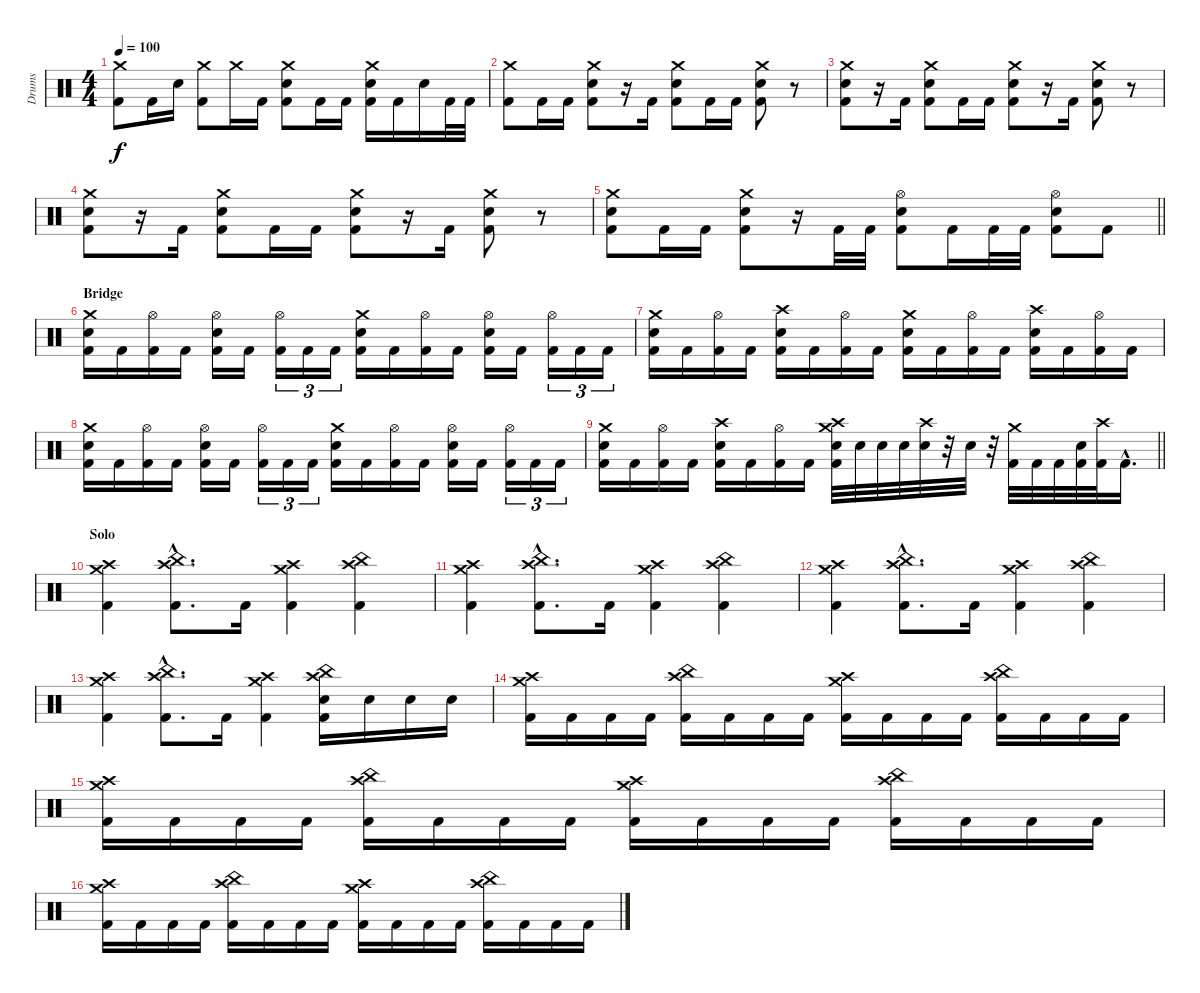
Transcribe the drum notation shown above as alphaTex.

\track ("Drums" "Drums") {instrument percussion}
\staff {score}
\articulation defaults
\ts (4 4)
\tempo 100
\clef neutral
\ks c
("Crash medium (hit)" "Kick (hit) 2").8{dy f} "Kick (hit) 2".16 "Electric Snare (hit)".16 ("Crash medium (hit)" "Kick (hit) 2").8 "Crash medium (hit)".16 "Kick (hit) 2".16 ("Crash medium (hit)" "Electric Snare (hit)" "Kick (hit) 2").8 "Kick (hit) 2".16 "Kick (hit) 2".16 ("Crash medium (hit)" "Electric Snare (hit)" "Kick (hit) 2").16 "Kick (hit) 2".16 "Electric Snare (hit)".16 "Kick (hit) 2".32 "Kick (hit) 2".32 |
("Crash medium (hit)" "Kick (hit) 2").8 "Kick (hit) 2".16 "Kick (hit) 2".16 ("Crash medium (hit)" "Electric Snare (hit)" "Kick (hit) 2").8 r.16 "Kick (hit) 2".16 ("Crash medium (hit)" "Electric Snare (hit)" "Kick (hit) 2").8 "Kick (hit) 2".16 "Kick (hit) 2".16 ("Crash medium (hit)" "Electric Snare (hit)" "Kick (hit) 2").8 r.8 |
("Crash medium (hit)" "Electric Snare (hit)" "Kick (hit) 2").8 r.16 "Kick (hit) 2".16 ("Crash medium (hit)" "Electric Snare (hit)" "Kick (hit) 2").8 "Kick (hit) 2".16 "Kick (hit) 2".16 ("Crash medium (hit)" "Electric Snare (hit)" "Kick (hit) 2").8 r.16 "Kick (hit) 2".16 ("Crash medium (hit)" "Electric Snare (hit)" "Kick (hit) 2").8 r.8 |
("Crash medium (hit)" "Electric Snare (hit)" "Kick (hit) 2").8 r.16 "Kick (hit) 2".16 ("Crash medium (hit)" "Electric Snare (hit)" "Kick (hit) 2").8 "Kick (hit) 2".16 "Kick (hit) 2".16 ("Crash medium (hit)" "Electric Snare (hit)" "Kick (hit) 2").8 r.16 "Kick (hit) 2".16 ("Crash medium (hit)" "Electric Snare (hit)" "Kick (hit) 2").8 r.8 |
\barLineRight lightlight
("Crash medium (hit)" "Electric Snare (hit)" "Kick (hit) 2").8 "Kick (hit) 2".16 "Kick (hit) 2".16 ("Crash medium (hit)" "Electric Snare (hit)" "Kick (hit) 2").8 r.16 "Kick (hit) 2".32 "Kick (hit) 2".32 ("Hi-Hat (open)" "Electric Snare (hit)" "Kick (hit) 2").8 "Kick (hit) 2".16 "Kick (hit) 2".32 "Kick (hit) 2".32 ("Hi-Hat (open)" "Electric Snare (hit)" "Kick (hit) 2").8 "Kick (hit) 2".8 |
\section ("" "Bridge")
("Crash medium (hit)" "Electric Snare (hit)" "Kick (hit) 2").16 "Kick (hit) 2".16 ("Hi-Hat (open)" "Kick (hit) 2").16 "Kick (hit) 2".16 ("Hi-Hat (open)" "Electric Snare (hit)" "Kick (hit) 2").16 "Kick (hit) 2".16 ("Hi-Hat (open)" "Kick (hit) 2").16{tu (3 2)} "Kick (hit) 2".16{tu (3 2)} "Kick (hit) 2".16{tu (3 2)} ("Crash medium (hit)" "Electric Snare (hit)" "Kick (hit) 2").16 "Kick (hit) 2".16 ("Hi-Hat (open)" "Kick (hit) 2").16 "Kick (hit) 2".16 ("Hi-Hat (open)" "Electric Snare (hit)" "Kick (hit) 2").16 "Kick (hit) 2".16 ("Hi-Hat (open)" "Kick (hit) 2").16{tu (3 2)} "Kick (hit) 2".16{tu (3 2)} "Kick (hit) 2".16{tu (3 2)} |
("Crash medium (hit)" "Electric Snare (hit)" "Kick (hit) 2").16 "Kick (hit) 2".16 ("Hi-Hat (open)" "Kick (hit) 2").16 "Kick (hit) 2".16 ("Crash high (hit)" "Electric Snare (hit)" "Kick (hit) 2").16 "Kick (hit) 2".16 ("Hi-Hat (open)" "Kick (hit) 2").16 "Kick (hit) 2".16 ("Crash medium (hit)" "Electric Snare (hit)" "Kick (hit) 2").16 "Kick (hit) 2".16 ("Hi-Hat (open)" "Kick (hit) 2").16 "Kick (hit) 2".16 ("Crash high (hit)" "Electric Snare (hit)" "Kick (hit) 2").16 "Kick (hit) 2".16 ("Hi-Hat (open)" "Kick (hit) 2").16 "Kick (hit) 2".16 |
("Crash medium (hit)" "Electric Snare (hit)" "Kick (hit) 2").16 "Kick (hit) 2".16 ("Hi-Hat (open)" "Kick (hit) 2").16 "Kick (hit) 2".16 ("Hi-Hat (open)" "Electric Snare (hit)" "Kick (hit) 2").16 "Kick (hit) 2".16 ("Hi-Hat (open)" "Kick (hit) 2").16{tu (3 2)} "Kick (hit) 2".16{tu (3 2)} "Kick (hit) 2".16{tu (3 2)} ("Crash medium (hit)" "Electric Snare (hit)" "Kick (hit) 2").16 "Kick (hit) 2".16 ("Hi-Hat (open)" "Kick (hit) 2").16 "Kick (hit) 2".16 ("Hi-Hat (open)" "Electric Snare (hit)" "Kick (hit) 2").16 "Kick (hit) 2".16 ("Hi-Hat (open)" "Kick (hit) 2").16{tu (3 2)} "Kick (hit) 2".16{tu (3 2)} "Kick (hit) 2".16{tu (3 2)} |
\barLineRight lightlight
("Crash medium (hit)" "Electric Snare (hit)" "Kick (hit) 2").16 "Kick (hit) 2".16 ("Hi-Hat (open)" "Kick (hit) 2").16 "Kick (hit) 2".16 ("Crash high (hit)" "Electric Snare (hit)" "Kick (hit) 2").16 "Kick (hit) 2".16 ("Hi-Hat (open)" "Kick (hit) 2").16 "Kick (hit) 2".16 ("Crash medium (hit)" "Crash high (hit)" "Electric Snare (hit)" "Kick (hit) 2").32 "Electric Snare (hit)".32 "Electric Snare (hit)".32 "Electric Snare (hit)".32 ("Crash high (hit)" "Electric Snare (hit)").32 r.32 "Electric Snare (hit)".32 r.32 ("Crash medium (hit)" "Kick (hit) 2").32 "Kick (hit) 2".32 "Kick (hit) 2".32 ("Electric Snare (hit)" "Kick (hit) 2").32 ("Crash high (hit)" "Kick (hit) 2").32 "Kick (hit) 2"{hac}.16{d} |
\section ("" "Solo")
("Crash medium (hit)" "Crash high (hit)" "Kick (hit) 2").4 ("China (hit)"{hac} "Crash high (hit)"{hac} "Kick (hit) 2"{hac}).8{d} "Kick (hit) 2".16 ("Crash medium (hit)" "Crash high (hit)" "Kick (hit) 2").4 ("China (hit)" "Crash high (hit)" "Kick (hit) 2").4 |
("Crash medium (hit)" "Crash high (hit)" "Kick (hit) 2").4 ("China (hit)"{hac} "Crash high (hit)"{hac} "Kick (hit) 2"{hac}).8{d} "Kick (hit) 2".16 ("Crash medium (hit)" "Crash high (hit)" "Kick (hit) 2").4 ("China (hit)" "Crash high (hit)" "Kick (hit) 2").4 |
("Crash medium (hit)" "Crash high (hit)" "Kick (hit) 2").4 ("China (hit)"{hac} "Crash high (hit)"{hac} "Kick (hit) 2"{hac}).8{d} "Kick (hit) 2".16 ("Crash medium (hit)" "Crash high (hit)" "Kick (hit) 2").4 ("China (hit)" "Crash high (hit)" "Kick (hit) 2").4 |
("Crash medium (hit)" "Crash high (hit)" "Kick (hit) 2").4 ("China (hit)"{hac} "Crash high (hit)"{hac} "Kick (hit) 2"{hac}).8{d} "Kick (hit) 2".16 ("Crash medium (hit)" "Crash high (hit)" "Kick (hit) 2").4 ("China (hit)" "Crash high (hit)" "Electric Snare (hit)" "Kick (hit) 2").16 "Electric Snare (hit)".16 "Electric Snare (hit)".16 "Electric Snare (hit)".16 |
("Crash medium (hit)" "Crash high (hit)" "Kick (hit) 2").16 "Kick (hit) 2".16 "Kick (hit) 2".16 "Kick (hit) 2".16 ("China (hit)" "Crash high (hit)" "Kick (hit) 2").16 "Kick (hit) 2".16 "Kick (hit) 2".16 "Kick (hit) 2".16 ("Crash medium (hit)" "Crash high (hit)" "Kick (hit) 2").16 "Kick (hit) 2".16 "Kick (hit) 2".16 "Kick (hit) 2".16 ("China (hit)" "Crash high (hit)" "Kick (hit) 2").16 "Kick (hit) 2".16 "Kick (hit) 2".16 "Kick (hit) 2".16 |
("Crash medium (hit)" "Crash high (hit)" "Kick (hit) 2").16 "Kick (hit) 2".16 "Kick (hit) 2".16 "Kick (hit) 2".16 ("China (hit)" "Crash high (hit)" "Kick (hit) 2").16 "Kick (hit) 2".16 "Kick (hit) 2".16 "Kick (hit) 2".16 ("Crash medium (hit)" "Crash high (hit)" "Kick (hit) 2").16 "Kick (hit) 2".16 "Kick (hit) 2".16 "Kick (hit) 2".16 ("China (hit)" "Crash high (hit)" "Kick (hit) 2").16 "Kick (hit) 2".16 "Kick (hit) 2".16 "Kick (hit) 2".16 |
("Crash medium (hit)" "Crash high (hit)" "Kick (hit) 2").16 "Kick (hit) 2".16 "Kick (hit) 2".16 "Kick (hit) 2".16 ("China (hit)" "Crash high (hit)" "Kick (hit) 2").16 "Kick (hit) 2".16 "Kick (hit) 2".16 "Kick (hit) 2".16 ("Crash medium (hit)" "Crash high (hit)" "Kick (hit) 2").16 "Kick (hit) 2".16 "Kick (hit) 2".16 "Kick (hit) 2".16 ("China (hit)" "Crash high (hit)" "Kick (hit) 2").16 "Kick (hit) 2".16 "Kick (hit) 2".16 "Kick (hit) 2".16
